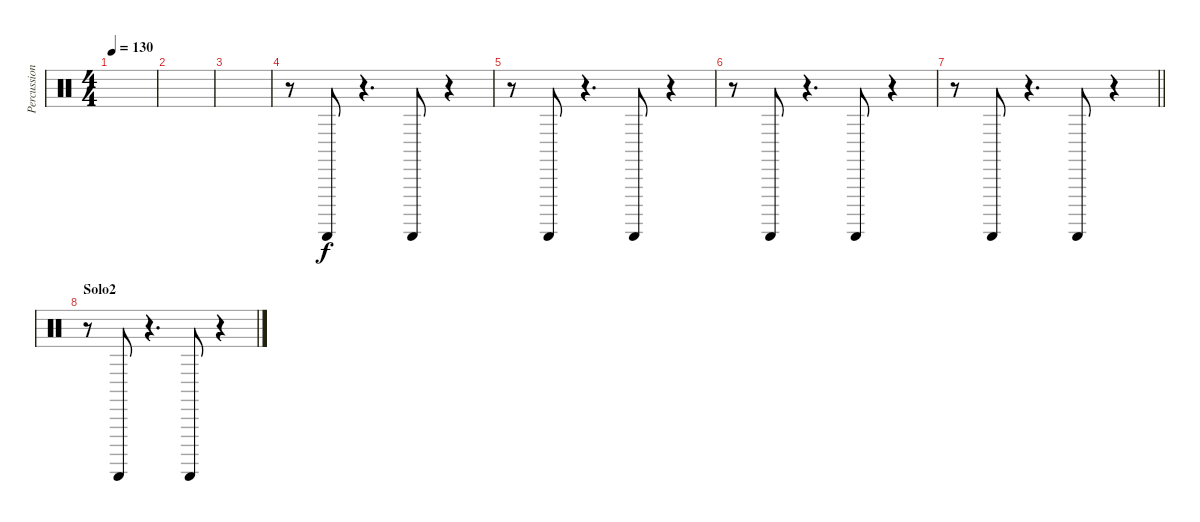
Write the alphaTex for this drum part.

\track ("Percussion" "Percussion") {instrument percussion}
\staff {score}
\articulation defaults
\ts (4 4)
\tempo 130
\clef neutral
\ks c
|
|
|
r.8 "Guiro (scrap-return)".8{volume 10} r.4{d} "Guiro (scrap-return)".8{volume 11} r.4 |
r.8 "Guiro (scrap-return)".8{volume 10} r.4{d} "Guiro (scrap-return)".8{volume 11} r.4 |
r.8 "Guiro (scrap-return)".8{volume 10} r.4{d} "Guiro (scrap-return)".8{volume 11} r.4 |
\barLineRight lightlight
r.8 "Guiro (scrap-return)".8{volume 10} r.4{d} "Guiro (scrap-return)".8{volume 11} r.4 |
\section ("" "Solo2")
r.8 "Guiro (scrap-return)".8{volume 10} r.4{d} "Guiro (scrap-return)".8{volume 11} r.4
